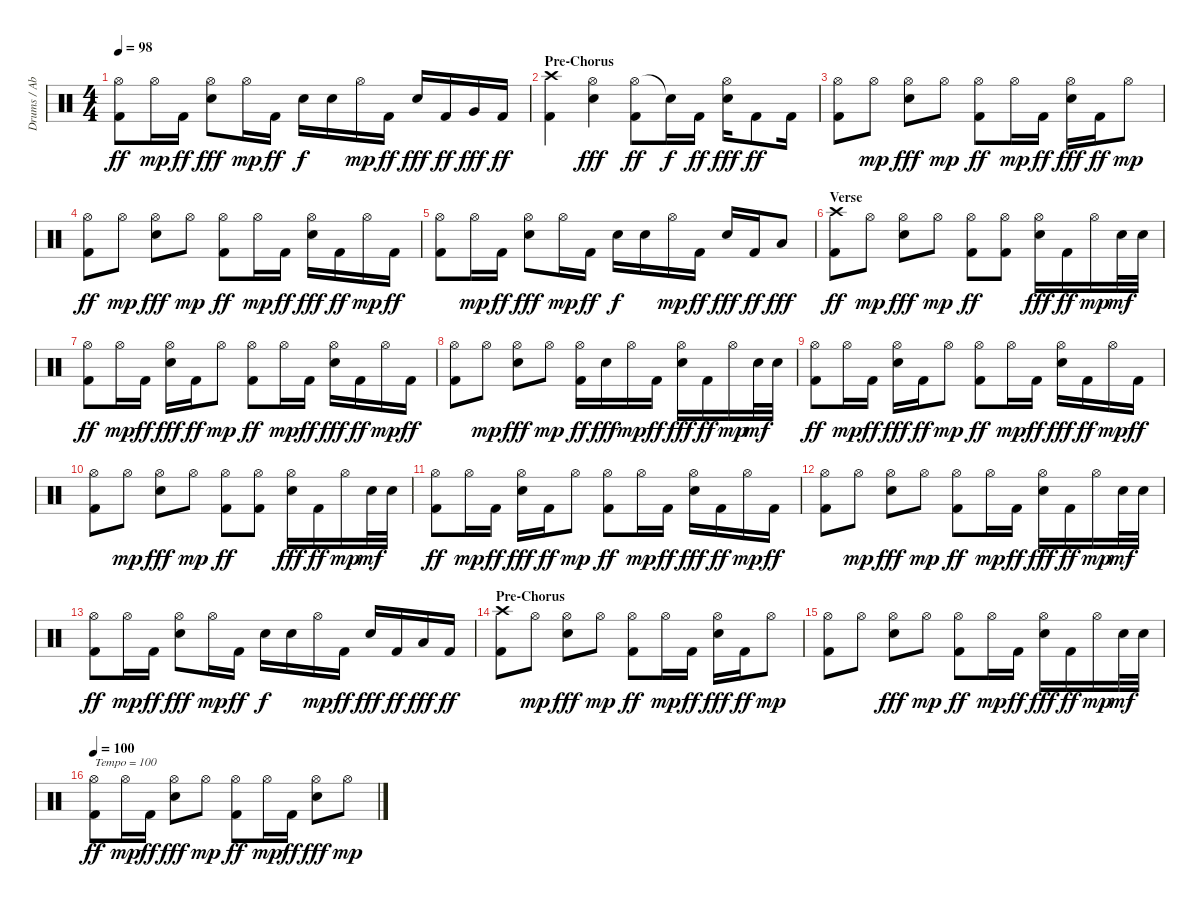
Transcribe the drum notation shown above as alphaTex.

\track ("Drums / Abe Cunningham" "Drums / Ab") {instrument percussion}
\staff {score}
\articulation defaults
\ts (4 4)
\tempo 98
\clef neutral
\ks c
("Hi-Hat (open)" "Kick (hit) 2").8{dy ff} "Hi-Hat (open)".16{dy mp} "Kick (hit) 2".16{dy ff} ("Hi-Hat (open)" "Electric Snare (hit)").8{dy fff} "Hi-Hat (open)".16{dy mp} "Kick (hit) 2".16{dy ff} "Electric Snare (hit)".16{dy f} "Electric Snare (hit)".16 "Hi-Hat (open)".16{dy mp} "Kick (hit) 2".16{dy ff} "Electric Snare (hit)".16{dy fff} "Kick (hit) 2".16{dy ff} "Very Low Tom (hit)".16{dy fff} "Kick (hit) 2".16{dy ff} |
\section ("" "Pre-Chorus")
("Crash high (hit)" "Kick (hit) 2").4 ("Hi-Hat (open)" "Electric Snare (hit)").4{dy fff} ("Hi-Hat (open)" "Kick (hit) 2").8{dy ff} "Snare (hit)"{t}.16{dy f} "Kick (hit) 2".16{dy ff} ("Hi-Hat (open)" "Electric Snare (hit)").16{dy fff} "Kick (hit) 2".8{dy ff} "Kick (hit) 2".16 |
("Hi-Hat (open)" "Kick (hit) 2").8 "Hi-Hat (open)".8{dy mp} ("Hi-Hat (open)" "Electric Snare (hit)").8{dy fff} "Hi-Hat (open)".8{dy mp} ("Hi-Hat (open)" "Kick (hit) 2").8{dy ff} "Hi-Hat (open)".16{dy mp} "Kick (hit) 2".16{dy ff} ("Hi-Hat (open)" "Electric Snare (hit)").16{dy fff} "Kick (hit) 2".16{dy ff} "Hi-Hat (open)".8{dy mp} |
("Hi-Hat (open)" "Kick (hit) 2").8{dy ff} "Hi-Hat (open)".8{dy mp} ("Hi-Hat (open)" "Electric Snare (hit)").8{dy fff} "Hi-Hat (open)".8{dy mp} ("Hi-Hat (open)" "Kick (hit) 2").8{dy ff} "Hi-Hat (open)".16{dy mp} "Kick (hit) 2".16{dy ff} ("Hi-Hat (open)" "Electric Snare (hit)").16{dy fff} "Kick (hit) 2".16{dy ff} "Hi-Hat (open)".16{dy mp} "Kick (hit) 2".16{dy ff} |
("Hi-Hat (open)" "Kick (hit) 2").8 "Hi-Hat (open)".16{dy mp} "Kick (hit) 2".16{dy ff} ("Hi-Hat (open)" "Electric Snare (hit)").8{dy fff} "Hi-Hat (open)".16{dy mp} "Kick (hit) 2".16{dy ff} "Electric Snare (hit)".16{dy f} "Electric Snare (hit)".16 "Hi-Hat (open)".16{dy mp} "Kick (hit) 2".16{dy ff} "Electric Snare (hit)".16{dy fff} "Kick (hit) 2".16{dy ff} "Low Tom (hit)".8{dy fff} |
\section ("" "Verse")
("Crash high (hit)" "Kick (hit) 2").8{dy ff} "Hi-Hat (open)".8{dy mp} ("Hi-Hat (open)" "Electric Snare (hit)").8{dy fff} "Hi-Hat (open)".8{dy mp} ("Hi-Hat (open)" "Kick (hit) 2").8{dy ff} ("Hi-Hat (open)" "Kick (hit) 2").8 ("Hi-Hat (open)" "Electric Snare (hit)").16{dy fff} "Kick (hit) 2".16{dy ff} "Hi-Hat (open)".16{dy mp} "Electric Snare (hit)".32{dy mf} "Electric Snare (hit)".32 |
("Hi-Hat (open)" "Kick (hit) 2").8{dy ff} "Hi-Hat (open)".16{dy mp} "Kick (hit) 2".16{dy ff} ("Hi-Hat (open)" "Electric Snare (hit)").16{dy fff} "Kick (hit) 2".16{dy ff} "Hi-Hat (open)".8{dy mp} ("Hi-Hat (open)" "Kick (hit) 2").8{dy ff} "Hi-Hat (open)".16{dy mp} "Kick (hit) 2".16{dy ff} ("Hi-Hat (open)" "Electric Snare (hit)").16{dy fff} "Kick (hit) 2".16{dy ff} "Hi-Hat (open)".16{dy mp} "Kick (hit) 2".16{dy ff} |
("Hi-Hat (open)" "Kick (hit) 2").8 "Hi-Hat (open)".8{dy mp} ("Hi-Hat (open)" "Electric Snare (hit)").8{dy fff} "Hi-Hat (open)".8{dy mp} ("Hi-Hat (open)" "Kick (hit) 2").16{dy ff} "Electric Snare (hit)".16{dy fff} "Hi-Hat (open)".16{dy mp} "Kick (hit) 2".16{dy ff} ("Hi-Hat (open)" "Electric Snare (hit)").16{dy fff} "Kick (hit) 2".16{dy ff} "Hi-Hat (open)".16{dy mp} "Electric Snare (hit)".32{dy mf} "Electric Snare (hit)".32 |
("Hi-Hat (open)" "Kick (hit) 2").8{dy ff} "Hi-Hat (open)".16{dy mp} "Kick (hit) 2".16{dy ff} ("Hi-Hat (open)" "Electric Snare (hit)").16{dy fff} "Kick (hit) 2".16{dy ff} "Hi-Hat (open)".8{dy mp} ("Hi-Hat (open)" "Kick (hit) 2").8{dy ff} "Hi-Hat (open)".16{dy mp} "Kick (hit) 2".16{dy ff} ("Hi-Hat (open)" "Electric Snare (hit)").16{dy fff} "Kick (hit) 2".16{dy ff} "Hi-Hat (open)".16{dy mp} "Kick (hit) 2".16{dy ff} |
("Hi-Hat (open)" "Kick (hit) 2").8 "Hi-Hat (open)".8{dy mp} ("Hi-Hat (open)" "Electric Snare (hit)").8{dy fff} "Hi-Hat (open)".8{dy mp} ("Hi-Hat (open)" "Kick (hit) 2").8{dy ff} ("Hi-Hat (open)" "Kick (hit) 2").8 ("Hi-Hat (open)" "Electric Snare (hit)").16{dy fff} "Kick (hit) 2".16{dy ff} "Hi-Hat (open)".16{dy mp} "Electric Snare (hit)".32{dy mf} "Electric Snare (hit)".32 |
("Hi-Hat (open)" "Kick (hit) 2").8{dy ff} "Hi-Hat (open)".16{dy mp} "Kick (hit) 2".16{dy ff} ("Hi-Hat (open)" "Electric Snare (hit)").16{dy fff} "Kick (hit) 2".16{dy ff} "Hi-Hat (open)".8{dy mp} ("Hi-Hat (open)" "Kick (hit) 2").8{dy ff} "Hi-Hat (open)".16{dy mp} "Kick (hit) 2".16{dy ff} ("Hi-Hat (open)" "Electric Snare (hit)").16{dy fff} "Kick (hit) 2".16{dy ff} "Hi-Hat (open)".16{dy mp} "Kick (hit) 2".16{dy ff} |
("Hi-Hat (open)" "Kick (hit) 2").8 "Hi-Hat (open)".8{dy mp} ("Hi-Hat (open)" "Electric Snare (hit)").8{dy fff} "Hi-Hat (open)".8{dy mp} ("Hi-Hat (open)" "Kick (hit) 2").8{dy ff} "Hi-Hat (open)".16{dy mp} "Kick (hit) 2".16{dy ff} ("Hi-Hat (open)" "Electric Snare (hit)").16{dy fff} "Kick (hit) 2".16{dy ff} "Hi-Hat (open)".16{dy mp} "Electric Snare (hit)".32{dy mf} "Electric Snare (hit)".32 |
("Hi-Hat (open)" "Kick (hit) 2").8{dy ff} "Hi-Hat (open)".16{dy mp} "Kick (hit) 2".16{dy ff} ("Hi-Hat (open)" "Electric Snare (hit)").8{dy fff} "Hi-Hat (open)".16{dy mp} "Kick (hit) 2".16{dy ff} "Electric Snare (hit)".16{dy f} "Electric Snare (hit)".16 "Hi-Hat (open)".16{dy mp} "Kick (hit) 2".16{dy ff} "Electric Snare (hit)".16{dy fff} "Kick (hit) 2".16{dy ff} "Low Tom (hit)".16{dy fff} "Kick (hit) 2".16{dy ff} |
\section ("" "Pre-Chorus")
("Crash high (hit)" "Kick (hit) 2").8 "Hi-Hat (open)".8{dy mp} ("Hi-Hat (open)" "Electric Snare (hit)").8{dy fff} "Hi-Hat (open)".8{dy mp} ("Hi-Hat (open)" "Kick (hit) 2").8{dy ff} "Hi-Hat (open)".16{dy mp} "Kick (hit) 2".16{dy ff} ("Hi-Hat (open)" "Electric Snare (hit)").16{dy fff} "Kick (hit) 2".16{dy ff} "Hi-Hat (open)".8{dy mp} |
("Hi-Hat (open)" "Kick (hit) 2").8 "Hi-Hat (open)".8 ("Hi-Hat (open)" "Electric Snare (hit)").8{dy fff} "Hi-Hat (open)".8{dy mp} ("Hi-Hat (open)" "Kick (hit) 2").8{dy ff} "Hi-Hat (open)".16{dy mp} "Kick (hit) 2".16{dy ff} ("Hi-Hat (open)" "Electric Snare (hit)").16{dy fff} "Kick (hit) 2".16{dy ff} "Hi-Hat (open)".16{dy mp} "Electric Snare (hit)".32{dy mf} "Electric Snare (hit)".32 |
\tempo 100
("Hi-Hat (open)" "Kick (hit) 2").8{txt "Tempo = 100" dy ff} "Hi-Hat (open)".16{dy mp} "Kick (hit) 2".16{dy ff} ("Hi-Hat (open)" "Electric Snare (hit)").8{dy fff} "Hi-Hat (open)".8{dy mp} ("Hi-Hat (open)" "Kick (hit) 2").8{dy ff} "Hi-Hat (open)".16{dy mp} "Kick (hit) 2".16{dy ff} ("Hi-Hat (open)" "Electric Snare (hit)").8{dy fff} "Hi-Hat (open)".8{dy mp}
